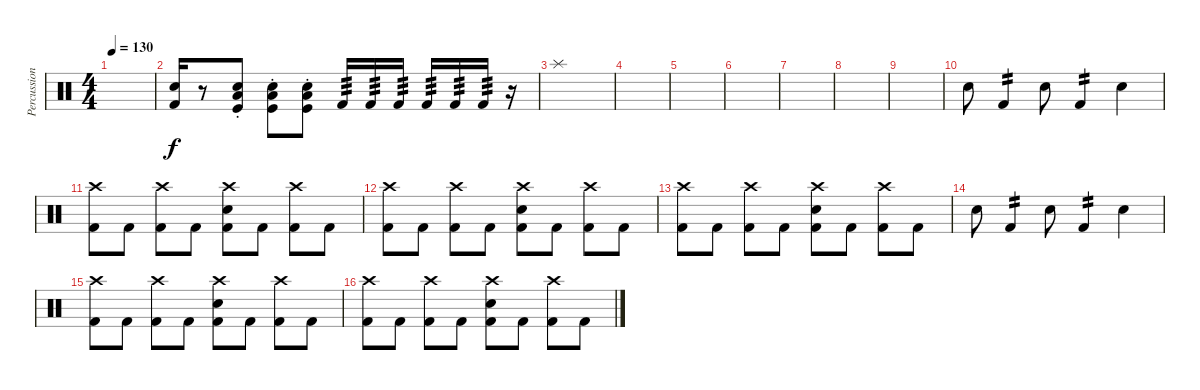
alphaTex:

\track ("Percussion" "Percussion") {instrument percussion}
\staff {score}
\articulation defaults
\ts (4 4)
\tempo 130
\clef neutral
\ks c
|
("Kick (hit) 2" "Electric Snare (hit)").16 r.8 ("Kick (hit)"{st} "Low Floor Tom (hit)" "Electric Snare (hit)").8 ("Kick (hit)"{st} "Low Floor Tom (hit)" "Electric Snare (hit)").8 ("Kick (hit)"{st} "Low Floor Tom (hit)" "Electric Snare (hit)").8 "Kick (hit) 2".16{tp 3} "Kick (hit) 2".16{tp 3} "Kick (hit) 2".16{tp 3} "Kick (hit) 2".16{tp 3} "Kick (hit) 2".16{tp 3} "Kick (hit) 2".16{tp 3} r.16 |
"Splash (hit)".1 |
|
|
|
|
|
|
"Electric Snare (hit)".8 "Kick (hit) 2".4{tp 2} "Electric Snare (hit)".8 "Kick (hit) 2".4{tp 2} "Electric Snare (hit)".4 |
("Crash high (hit)" "Kick (hit) 2").8 "Kick (hit) 2".8 ("Crash high (hit)" "Kick (hit) 2").8 "Kick (hit) 2".8 ("Crash high (hit)" "Electric Snare (hit)" "Kick (hit) 2").8 "Kick (hit) 2".8 ("Crash high (hit)" "Kick (hit) 2").8 "Kick (hit) 2".8 |
("Crash high (hit)" "Kick (hit) 2").8 "Kick (hit) 2".8 ("Crash high (hit)" "Kick (hit) 2").8 "Kick (hit) 2".8 ("Crash high (hit)" "Electric Snare (hit)" "Kick (hit) 2").8 "Kick (hit) 2".8 ("Crash high (hit)" "Kick (hit) 2").8 "Kick (hit) 2".8 |
("Crash high (hit)" "Kick (hit) 2").8 "Kick (hit) 2".8 ("Crash high (hit)" "Kick (hit) 2").8 "Kick (hit) 2".8 ("Crash high (hit)" "Electric Snare (hit)" "Kick (hit) 2").8 "Kick (hit) 2".8 ("Crash high (hit)" "Kick (hit) 2").8 "Kick (hit) 2".8 |
"Electric Snare (hit)".8 "Kick (hit) 2".4{tp 2} "Electric Snare (hit)".8 "Kick (hit) 2".4{tp 2} "Electric Snare (hit)".4 |
("Crash high (hit)" "Kick (hit) 2").8 "Kick (hit) 2".8 ("Crash high (hit)" "Kick (hit) 2").8 "Kick (hit) 2".8 ("Crash high (hit)" "Electric Snare (hit)" "Kick (hit) 2").8 "Kick (hit) 2".8 ("Crash high (hit)" "Kick (hit) 2").8 "Kick (hit) 2".8 |
("Crash high (hit)" "Kick (hit) 2").8 "Kick (hit) 2".8 ("Crash high (hit)" "Kick (hit) 2").8 "Kick (hit) 2".8 ("Crash high (hit)" "Electric Snare (hit)" "Kick (hit) 2").8 "Kick (hit) 2".8 ("Crash high (hit)" "Kick (hit) 2").8 "Kick (hit) 2".8
